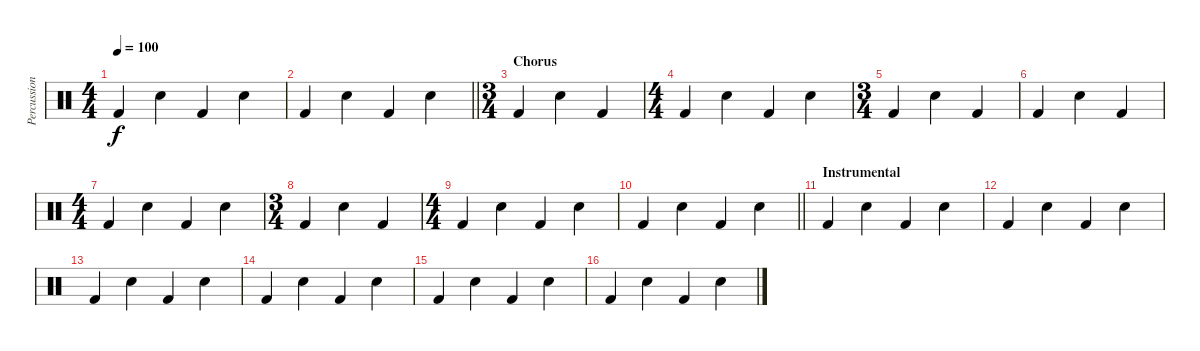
\track ("Percussion" "Percussion") {instrument percussion}
\staff {score}
\articulation defaults
\ts (4 4)
\tempo 100
\clef neutral
\ks c "Kick (hit) 2".4{dy f} "Snare (hit) 2".4 "Kick (hit) 2".4 "Snare (hit) 2".4
|
\barLineRight lightlight "Kick (hit) 2".4 "Snare (hit) 2".4 "Kick (hit) 2".4 "Snare (hit) 2".4
|
\ts (3 4)
\section ("" "Chorus")
"Kick (hit) 2".4 "Snare (hit) 2".4 "Kick (hit) 2".4 |
\ts (4 4)
"Kick (hit) 2".4 "Snare (hit) 2".4 "Kick (hit) 2".4 "Snare (hit) 2".4 |
\ts (3 4)
"Kick (hit) 2".4 "Snare (hit) 2".4 "Kick (hit) 2".4 |
"Kick (hit) 2".4 "Snare (hit) 2".4 "Kick (hit) 2".4 |
\ts (4 4)
"Kick (hit) 2".4 "Snare (hit) 2".4 "Kick (hit) 2".4 "Snare (hit) 2".4 |
\ts (3 4)
"Kick (hit) 2".4 "Snare (hit) 2".4 "Kick (hit) 2".4 |
\ts (4 4)
"Kick (hit) 2".4 "Snare (hit) 2".4 "Kick (hit) 2".4 "Snare (hit) 2".4 |
\barLineRight lightlight "Kick (hit) 2".4 "Snare (hit) 2".4 "Kick (hit) 2".4 "Snare (hit) 2".4
|
\section ("" "Instrumental")
"Kick (hit) 2".4 "Snare (hit) 2".4 "Kick (hit) 2".4 "Snare (hit) 2".4 |
"Kick (hit) 2".4 "Snare (hit) 2".4 "Kick (hit) 2".4 "Snare (hit) 2".4 |
"Kick (hit) 2".4 "Snare (hit) 2".4 "Kick (hit) 2".4 "Snare (hit) 2".4 |
"Kick (hit) 2".4 "Snare (hit) 2".4 "Kick (hit) 2".4 "Snare (hit) 2".4 |
"Kick (hit) 2".4 "Snare (hit) 2".4 "Kick (hit) 2".4 "Snare (hit) 2".4 |
"Kick (hit) 2".4 "Snare (hit) 2".4 "Kick (hit) 2".4 "Snare (hit) 2".4
